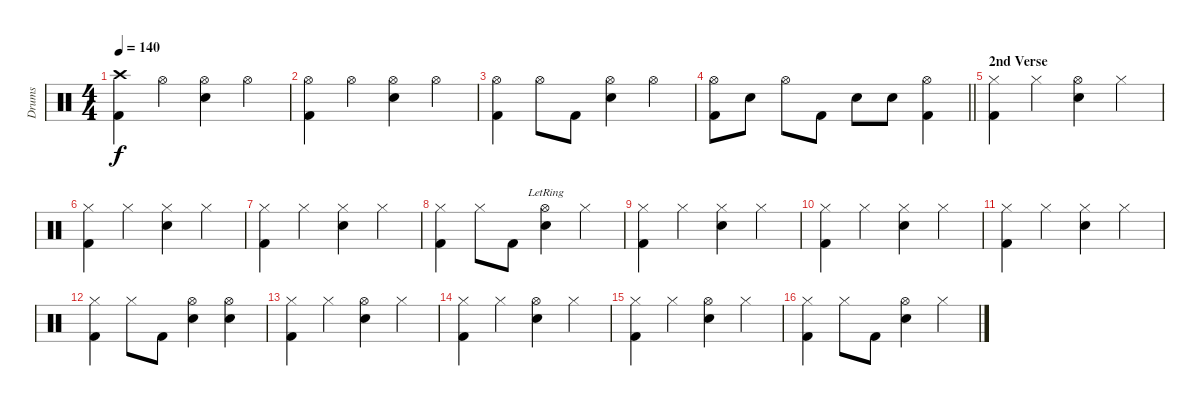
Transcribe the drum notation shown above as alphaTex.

\track ("Drums" "Drums") {instrument percussion}
\staff {score}
\articulation defaults
\ts (4 4)
\tempo 140
\clef neutral
\ks c
("Crash high (hit)" "Kick (hit) 2").4{dy f} "Hi-Hat (open)".4 ("Snare (hit) 2" "Hi-Hat (open)").4 "Hi-Hat (open)".4 |
("Hi-Hat (open)" "Kick (hit) 2").4 "Hi-Hat (open)".4 ("Snare (hit) 2" "Hi-Hat (open)").4 "Hi-Hat (open)".4 |
("Hi-Hat (open)" "Kick (hit) 2").4 "Hi-Hat (open)".8 "Kick (hit) 2".8 ("Snare (hit) 2" "Hi-Hat (open)").4 "Hi-Hat (open)".4 |
\barLineRight lightlight
("Kick (hit) 2" "Hi-Hat (open)").8 "Snare (hit) 2".8 "Hi-Hat (open)".8 "Kick (hit) 2".8 "Snare (hit) 2".8 "Snare (hit) 2".8 ("Kick (hit) 2" "Hi-Hat (open)").4 |
\section ("" "2nd Verse")
("Hi-Hat (closed)" "Kick (hit) 2").4{volume 13} "Hi-Hat (closed)".4 ("Snare (hit) 2" "Hi-Hat (open)").4 "Hi-Hat (closed)".4 |
("Hi-Hat (closed)" "Kick (hit) 2").4 "Hi-Hat (closed)".4 ("Snare (hit) 2" "Hi-Hat (closed)").4 "Hi-Hat (closed)".4 |
("Hi-Hat (closed)" "Kick (hit) 2").4 "Hi-Hat (closed)".4 ("Snare (hit) 2" "Hi-Hat (closed)").4 "Hi-Hat (closed)".4 |
("Hi-Hat (closed)" "Kick (hit) 2").4 "Hi-Hat (closed)".8 "Kick (hit) 2".8 ("Snare (hit) 2" "Hi-Hat (open)"{lr}).4 "Hi-Hat (closed)".4 |
("Hi-Hat (closed)" "Kick (hit) 2").4 "Hi-Hat (closed)".4 ("Snare (hit) 2" "Hi-Hat (closed)").4 "Hi-Hat (closed)".4 |
("Hi-Hat (closed)" "Kick (hit) 2").4 "Hi-Hat (closed)".4 ("Snare (hit) 2" "Hi-Hat (closed)").4 "Hi-Hat (closed)".4 |
("Hi-Hat (closed)" "Kick (hit) 2").4 "Hi-Hat (closed)".4 ("Snare (hit) 2" "Hi-Hat (closed)").4 "Hi-Hat (closed)".4 |
("Hi-Hat (closed)" "Kick (hit) 2").4 "Hi-Hat (closed)".8 "Kick (hit) 2".8 ("Snare (hit) 2" "Hi-Hat (open)").4 ("Snare (hit) 2" "Hi-Hat (open)").4 |
("Hi-Hat (closed)" "Kick (hit) 2").4 "Hi-Hat (closed)".4 ("Snare (hit) 2" "Hi-Hat (open)").4 "Hi-Hat (closed)".4 |
("Hi-Hat (closed)" "Kick (hit) 2").4 "Hi-Hat (closed)".4 ("Snare (hit) 2" "Hi-Hat (open)").4 "Hi-Hat (closed)".4 |
("Hi-Hat (closed)" "Kick (hit) 2").4 "Hi-Hat (closed)".4 ("Snare (hit) 2" "Hi-Hat (open)").4 "Hi-Hat (closed)".4 |
("Hi-Hat (closed)" "Kick (hit) 2").4 "Hi-Hat (closed)".8 "Kick (hit) 2".8 ("Snare (hit) 2" "Hi-Hat (open)").4 "Hi-Hat (closed)".4
